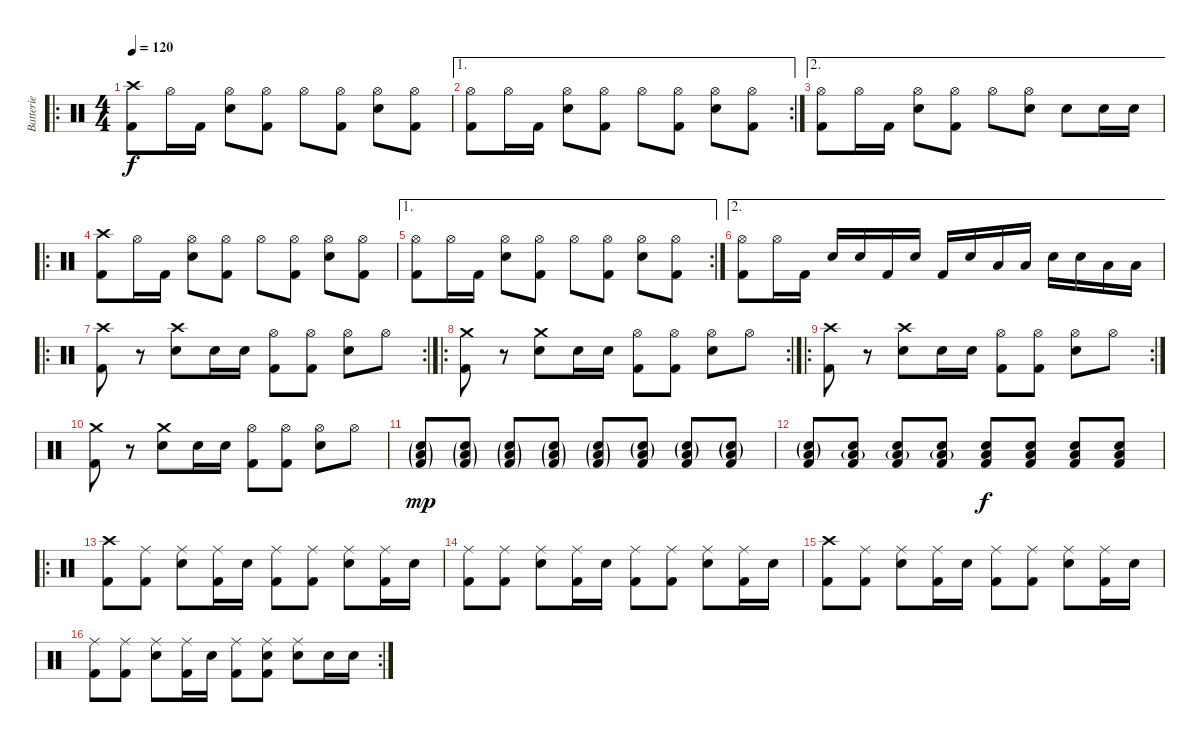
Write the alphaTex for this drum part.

\track ("Batterie" "Batterie") {instrument percussion}
\staff {score}
\articulation defaults
\ro
\ts (4 4)
\tempo 120
\clef neutral
\ks c
("Crash high (hit)" "Kick (hit) 2").8{dy f} "Hi-Hat (open)".16 "Kick (hit) 2".16 ("Hi-Hat (open)" "Snare (hit) 2").8 ("Hi-Hat (open)" "Kick (hit) 2").8 "Hi-Hat (open)".8 ("Hi-Hat (open)" "Kick (hit) 2").8 ("Hi-Hat (open)" "Snare (hit) 2").8 ("Hi-Hat (open)" "Kick (hit) 2").8 |
\ae 1
\rc 2
("Hi-Hat (open)" "Kick (hit) 2").8 "Hi-Hat (open)".16 "Kick (hit) 2".16 ("Hi-Hat (open)" "Snare (hit) 2").8 ("Hi-Hat (open)" "Kick (hit) 2").8 "Hi-Hat (open)".8 ("Hi-Hat (open)" "Kick (hit) 2").8 ("Hi-Hat (open)" "Snare (hit) 2").8 ("Hi-Hat (open)" "Kick (hit) 2").8 |
\ae 2
("Hi-Hat (open)" "Kick (hit) 2").8 "Hi-Hat (open)".16 "Kick (hit) 2".16 ("Hi-Hat (open)" "Snare (hit) 2").8 ("Hi-Hat (open)" "Kick (hit) 2").8 "Hi-Hat (open)".8 ("Hi-Hat (open)" "Snare (hit) 2").8 "Snare (hit) 2".8 "Snare (hit) 2".16 "Snare (hit) 2".16 |
\ro
("Crash high (hit)" "Kick (hit) 2").8 "Hi-Hat (open)".16 "Kick (hit) 2".16 ("Hi-Hat (open)" "Snare (hit) 2").8 ("Hi-Hat (open)" "Kick (hit) 2").8 "Hi-Hat (open)".8 ("Hi-Hat (open)" "Kick (hit) 2").8 ("Hi-Hat (open)" "Snare (hit) 2").8 ("Hi-Hat (open)" "Kick (hit) 2").8 |
\ae 1
\rc 2
("Hi-Hat (open)" "Kick (hit) 2").8 "Hi-Hat (open)".16 "Kick (hit) 2".16 ("Hi-Hat (open)" "Snare (hit) 2").8 ("Hi-Hat (open)" "Kick (hit) 2").8 "Hi-Hat (open)".8 ("Hi-Hat (open)" "Kick (hit) 2").8 ("Hi-Hat (open)" "Snare (hit) 2").8 ("Hi-Hat (open)" "Kick (hit) 2").8 |
\ae 2
("Hi-Hat (open)" "Kick (hit) 2").8 "Hi-Hat (open)".16 "Kick (hit) 2".16 "Snare (hit) 2".16 "Snare (hit) 2".16 "Kick (hit) 2".16 "Snare (hit) 2".16 "Kick (hit) 2".16 "Snare (hit) 2".16 "Low Floor Tom (hit)".16 "Low Floor Tom (hit)".16 "Snare (hit) 2".16 "Snare (hit) 2".16 "Low Floor Tom (hit)".16 "Low Floor Tom (hit)".16 |
\ro
\rc 2
("Crash high (hit)" "Kick (hit) 2").8 r.8 ("Crash high (hit)" "Snare (hit) 2").8 "Snare (hit) 2".16 "Snare (hit) 2".16 ("Hi-Hat (open)" "Kick (hit) 2").8 ("Hi-Hat (open)" "Kick (hit) 2").8 ("Hi-Hat (open)" "Snare (hit) 2").8 "Hi-Hat (open)".8 |
\ro
\rc 2
("Crash medium (hit)" "Kick (hit) 2").8 r.8 ("Crash medium (hit)" "Snare (hit) 2").8 "Snare (hit) 2".16 "Snare (hit) 2".16 ("Hi-Hat (open)" "Kick (hit) 2").8 ("Hi-Hat (open)" "Kick (hit) 2").8 ("Hi-Hat (open)" "Snare (hit) 2").8 "Hi-Hat (open)".8 |
\ro
\rc 2
("Crash high (hit)" "Kick (hit) 2").8 r.8 ("Crash high (hit)" "Snare (hit) 2").8 "Snare (hit) 2".16 "Snare (hit) 2".16 ("Hi-Hat (open)" "Kick (hit) 2").8 ("Hi-Hat (open)" "Kick (hit) 2").8 ("Hi-Hat (open)" "Snare (hit) 2").8 "Hi-Hat (open)".8 |
("Crash medium (hit)" "Kick (hit) 2").8 r.8 ("Crash medium (hit)" "Snare (hit) 2").8 "Snare (hit) 2".16 "Snare (hit) 2".16 ("Hi-Hat (open)" "Kick (hit) 2").8 ("Hi-Hat (open)" "Kick (hit) 2").8 ("Hi-Hat (open)" "Snare (hit) 2").8 "Hi-Hat (open)".8 |
("Low Tom (hit)"{g} "Snare (hit) 2"{g} "Kick (hit) 2"{g}).8{dy mp} ("Low Tom (hit)"{g} "Snare (hit) 2"{g} "Kick (hit) 2"{g}).8 ("Low Tom (hit)"{g} "Snare (hit) 2"{g} "Kick (hit) 2"{g}).8 ("Low Tom (hit)"{g} "Snare (hit) 2"{g} "Kick (hit) 2"{g}).8 ("Low Tom (hit)"{g} "Snare (hit) 2"{g} "Kick (hit) 2"{g}).8 ("Low Tom (hit)"{g} "Snare (hit) 2"{g} "Kick (hit) 2").8 ("Low Tom (hit)"{g} "Snare (hit) 2"{g} "Kick (hit) 2").8 ("Low Tom (hit)"{g} "Snare (hit) 2"{g} "Kick (hit) 2").8 |
("Low Tom (hit)"{g} "Snare (hit) 2"{g} "Kick (hit) 2").8 ("Low Tom (hit)"{g} "Snare (hit) 2" "Kick (hit) 2").8 ("Low Tom (hit)"{g} "Snare (hit) 2" "Kick (hit) 2").8 ("Low Tom (hit)"{g} "Snare (hit) 2" "Kick (hit) 2").8 ("Low Tom (hit)" "Snare (hit) 2" "Kick (hit) 2").8{dy f} ("Low Tom (hit)" "Snare (hit) 2" "Kick (hit) 2").8 ("Low Tom (hit)" "Snare (hit) 2" "Kick (hit) 2").8 ("Low Tom (hit)" "Snare (hit) 2" "Kick (hit) 2").8 |
\ro
("Crash high (hit)" "Kick (hit) 2").8 ("Ride (middle)" "Kick (hit) 2").8 ("Ride (middle)" "Snare (hit) 2").8 ("Ride (middle)" "Kick (hit) 2").16 "Snare (hit) 2".16 ("Ride (middle)" "Kick (hit) 2").8 ("Ride (middle)" "Kick (hit) 2").8 ("Ride (middle)" "Snare (hit) 2").8 ("Ride (middle)" "Kick (hit) 2").16 "Snare (hit) 2".16 |
("Ride (middle)" "Kick (hit) 2").8 ("Ride (middle)" "Kick (hit) 2").8 ("Ride (middle)" "Snare (hit) 2").8 ("Ride (middle)" "Kick (hit) 2").16 "Snare (hit) 2".16 ("Ride (middle)" "Kick (hit) 2").8 ("Ride (middle)" "Kick (hit) 2").8 ("Ride (middle)" "Snare (hit) 2").8 ("Ride (middle)" "Kick (hit) 2").16 "Snare (hit) 2".16 |
("Crash high (hit)" "Kick (hit) 2").8 ("Ride (middle)" "Kick (hit) 2").8 ("Ride (middle)" "Snare (hit) 2").8 ("Ride (middle)" "Kick (hit) 2").16 "Snare (hit) 2".16 ("Ride (middle)" "Kick (hit) 2").8 ("Ride (middle)" "Kick (hit) 2").8 ("Ride (middle)" "Snare (hit) 2").8 ("Ride (middle)" "Kick (hit) 2").16 "Snare (hit) 2".16 |
\rc 2
("Ride (middle)" "Kick (hit) 2").8 ("Ride (middle)" "Kick (hit) 2").8 ("Ride (middle)" "Snare (hit) 2").8 ("Ride (middle)" "Kick (hit) 2").16 "Snare (hit) 2".16 ("Ride (middle)" "Kick (hit) 2").8 ("Ride (middle)" "Snare (hit) 2" "Kick (hit) 2").8 ("Ride (middle)" "Snare (hit) 2").8 "Snare (hit) 2".16 "Snare (hit) 2".16
